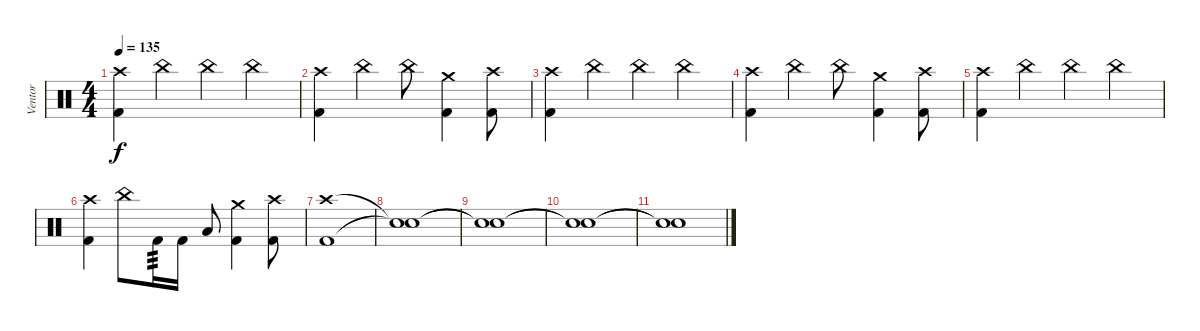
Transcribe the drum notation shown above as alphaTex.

\track ("Ventor" "Ventor") {instrument percussion}
\staff {score}
\articulation defaults
\ts (4 4)
\tempo 135
\clef neutral
\ks c
("Crash high (hit)" "Kick (hit) 2").4{dy f} "China (hit)".4 "China (hit)".4 "China (hit)".4 |
("Crash high (hit)" "Kick (hit) 2").4 "China (hit)".4 "China (hit)".8 ("Crash medium (hit)" "Kick (hit) 2").4 ("Crash high (hit)" "Kick (hit) 2").8 |
("Crash high (hit)" "Kick (hit) 2").4 "China (hit)".4 "China (hit)".4 "China (hit)".4 |
("Crash high (hit)" "Kick (hit) 2").4 "China (hit)".4 "China (hit)".8 ("Crash medium (hit)" "Kick (hit) 2").4 ("Crash high (hit)" "Kick (hit) 2").8 |
("Crash high (hit)" "Kick (hit) 2").4 "China (hit)".4 "China (hit)".4 "China (hit)".4 |
("Crash high (hit)" "Kick (hit) 2").4 "China (hit)".8 "Kick (hit) 2".16{tp 3} "Kick (hit) 2".16 "Low Tom (hit)".8 ("Crash medium (hit)" "Kick (hit) 2").4 ("Crash high (hit)" "Kick (hit) 2").8 |
("Crash high (hit)" "Kick (hit) 2").1 |
("Snare (hit)"{t} "Snare (hit)"{t}).1 |
("Snare (hit)"{t} "Snare (hit)"{t}).1 |
("Snare (hit)"{t} "Snare (hit)"{t}).1 |
("Snare (hit)"{t} "Snare (hit)"{t}).1
